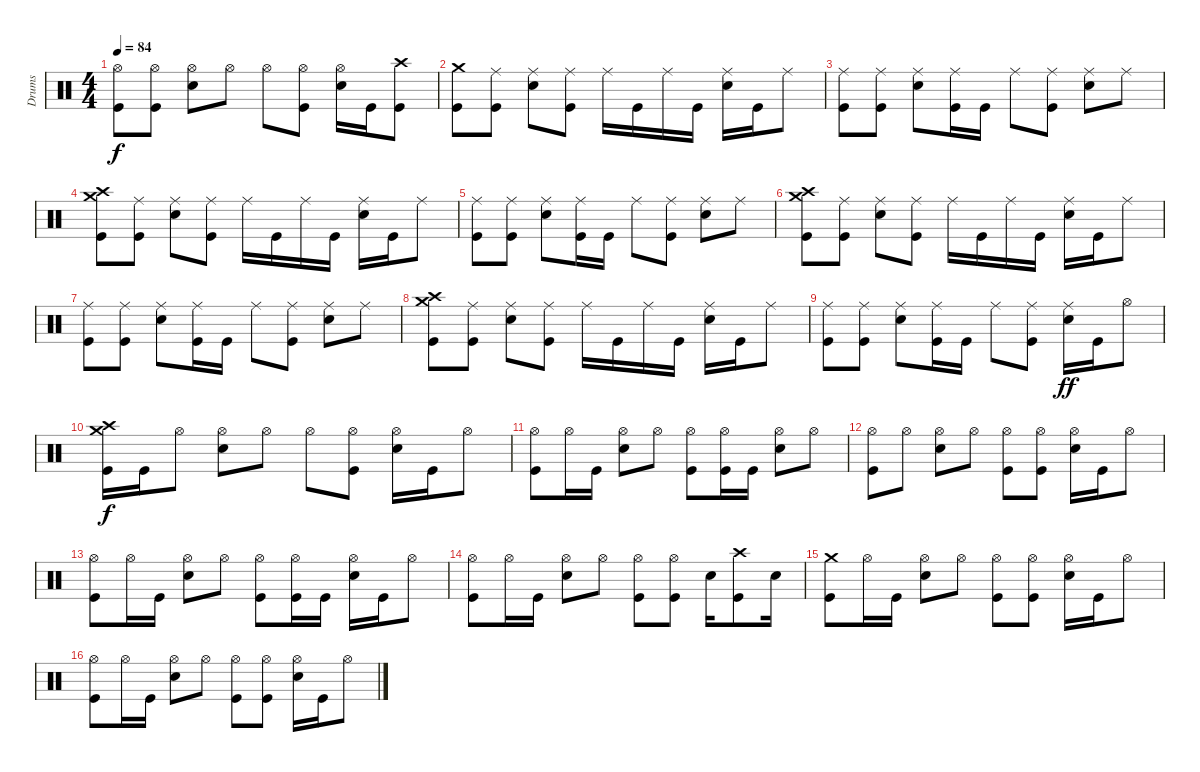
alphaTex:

\track ("Drums" "Drums") {instrument percussion}
\staff {score}
\articulation defaults
\ts (4 4)
\tempo 84
\clef neutral
\ks c
("Kick (hit)" "Hi-Hat (open)").8{dy f} ("Kick (hit)" "Hi-Hat (open)").8 ("Snare (hit) 2" "Hi-Hat (open)").8 "Hi-Hat (open)".8 "Hi-Hat (open)".8 ("Kick (hit)" "Hi-Hat (open)").8 ("Snare (hit) 2" "Hi-Hat (open)").16 "Kick (hit)".16 ("Crash high (hit)" "Kick (hit)").8 |
("Crash medium (hit)" "Kick (hit)").8 ("Ride (middle)" "Kick (hit)").8 ("Ride (middle)" "Snare (hit) 2").8 ("Ride (middle)" "Kick (hit)").8 "Ride (middle)".16 "Kick (hit)".16 "Ride (middle)".16 "Kick (hit)".16 ("Ride (middle)" "Snare (hit) 2").16 "Kick (hit)".16 "Ride (middle)".8 |
("Ride (middle)" "Kick (hit)").8 ("Ride (middle)" "Kick (hit)").8 ("Ride (middle)" "Snare (hit) 2").8 ("Ride (middle)" "Kick (hit)").16 "Kick (hit)".16 "Ride (middle)".8 ("Ride (middle)" "Kick (hit)").8 ("Ride (middle)" "Snare (hit) 2").8 "Ride (middle)".8 |
("Crash medium (hit)" "Crash high (hit)" "Kick (hit)").8 ("Ride (middle)" "Kick (hit)").8 ("Ride (middle)" "Snare (hit) 2").8 ("Ride (middle)" "Kick (hit)").8 "Ride (middle)".16 "Kick (hit)".16 "Ride (middle)".16 "Kick (hit)".16 ("Ride (middle)" "Snare (hit) 2").16 "Kick (hit)".16 "Ride (middle)".8 |
("Ride (middle)" "Kick (hit)").8 ("Ride (middle)" "Kick (hit)").8 ("Ride (middle)" "Snare (hit) 2").8 ("Ride (middle)" "Kick (hit)").16 "Kick (hit)".16 "Ride (middle)".8 ("Ride (middle)" "Kick (hit)").8 ("Ride (middle)" "Snare (hit) 2").8 "Ride (middle)".8 |
("Crash medium (hit)" "Crash high (hit)" "Kick (hit)").8 ("Ride (middle)" "Kick (hit)").8 ("Ride (middle)" "Snare (hit) 2").8 ("Ride (middle)" "Kick (hit)").8 "Ride (middle)".16 "Kick (hit)".16 "Ride (middle)".16 "Kick (hit)".16 ("Ride (middle)" "Snare (hit) 2").16 "Kick (hit)".16 "Ride (middle)".8 |
("Ride (middle)" "Kick (hit)").8 ("Ride (middle)" "Kick (hit)").8 ("Ride (middle)" "Snare (hit) 2").8 ("Ride (middle)" "Kick (hit)").16 "Kick (hit)".16 "Ride (middle)".8 ("Ride (middle)" "Kick (hit)").8 ("Ride (middle)" "Snare (hit) 2").8 "Ride (middle)".8 |
("Crash medium (hit)" "Crash high (hit)" "Kick (hit)").8 ("Ride (middle)" "Kick (hit)").8 ("Ride (middle)" "Snare (hit) 2").8 ("Ride (middle)" "Kick (hit)").8 "Ride (middle)".16 "Kick (hit)".16 "Ride (middle)".16 "Kick (hit)".16 ("Ride (middle)" "Snare (hit) 2").16 "Kick (hit)".16 "Ride (middle)".8 |
("Ride (middle)" "Kick (hit)").8 ("Ride (middle)" "Kick (hit)").8 ("Ride (middle)" "Snare (hit) 2").8 ("Ride (middle)" "Kick (hit)").16 "Kick (hit)".16 "Ride (middle)".8 ("Ride (middle)" "Kick (hit)").8 ("Ride (middle)" "Snare (hit) 2").16{dy ff} "Kick (hit)".16 "Hi-Hat (open)".8 |
("Crash medium (hit)" "Crash high (hit)" "Kick (hit)").16{dy f} "Kick (hit)".16 "Hi-Hat (open)".8 ("Snare (hit) 2" "Hi-Hat (open)").8 "Hi-Hat (open)".8 "Hi-Hat (open)".8 ("Kick (hit)" "Hi-Hat (open)").8 ("Snare (hit) 2" "Hi-Hat (open)").16 "Kick (hit)".16 "Hi-Hat (open)".8 |
("Kick (hit)" "Hi-Hat (open)").8 "Hi-Hat (open)".16 "Kick (hit)".16 ("Snare (hit) 2" "Hi-Hat (open)").8 "Hi-Hat (open)".8 ("Kick (hit)" "Hi-Hat (open)").8 ("Kick (hit)" "Hi-Hat (open)").16 "Kick (hit)".16 ("Snare (hit) 2" "Hi-Hat (open)").8 "Hi-Hat (open)".8 |
("Kick (hit)" "Hi-Hat (open)").8 "Hi-Hat (open)".8 ("Snare (hit) 2" "Hi-Hat (open)").8 "Hi-Hat (open)".8 ("Kick (hit)" "Hi-Hat (open)").8 ("Kick (hit)" "Hi-Hat (open)").8 ("Snare (hit) 2" "Hi-Hat (open)").16 "Kick (hit)".16 "Hi-Hat (open)".8 |
("Kick (hit)" "Hi-Hat (open)").8 "Hi-Hat (open)".16 "Kick (hit)".16 ("Snare (hit) 2" "Hi-Hat (open)").8 "Hi-Hat (open)".8 ("Kick (hit)" "Hi-Hat (open)").8 ("Kick (hit)" "Hi-Hat (open)").16 "Kick (hit)".16 ("Snare (hit) 2" "Hi-Hat (open)").16 "Kick (hit)".16 "Hi-Hat (open)".8 |
("Kick (hit)" "Hi-Hat (open)").8 "Hi-Hat (open)".16 "Kick (hit)".16 ("Snare (hit) 2" "Hi-Hat (open)").8 "Hi-Hat (open)".8 ("Kick (hit)" "Hi-Hat (open)").8 ("Kick (hit)" "Hi-Hat (open)").8 "Snare (hit) 2".16 ("Crash high (hit)" "Kick (hit)").8 "Snare (hit) 2".16 |
("Crash medium (hit)" "Kick (hit)").8 "Hi-Hat (open)".16 "Kick (hit)".16 ("Snare (hit) 2" "Hi-Hat (open)").8 "Hi-Hat (open)".8 ("Kick (hit)" "Hi-Hat (open)").8 ("Kick (hit)" "Hi-Hat (open)").8 ("Snare (hit) 2" "Hi-Hat (open)").16 "Kick (hit)".16 "Hi-Hat (open)".8 |
("Kick (hit)" "Hi-Hat (open)").8 "Hi-Hat (open)".16 "Kick (hit)".16 ("Snare (hit) 2" "Hi-Hat (open)").8 "Hi-Hat (open)".8 ("Kick (hit)" "Hi-Hat (open)").8 ("Kick (hit)" "Hi-Hat (open)").8 ("Snare (hit) 2" "Hi-Hat (open)").16 "Kick (hit)".16 "Hi-Hat (open)".8
